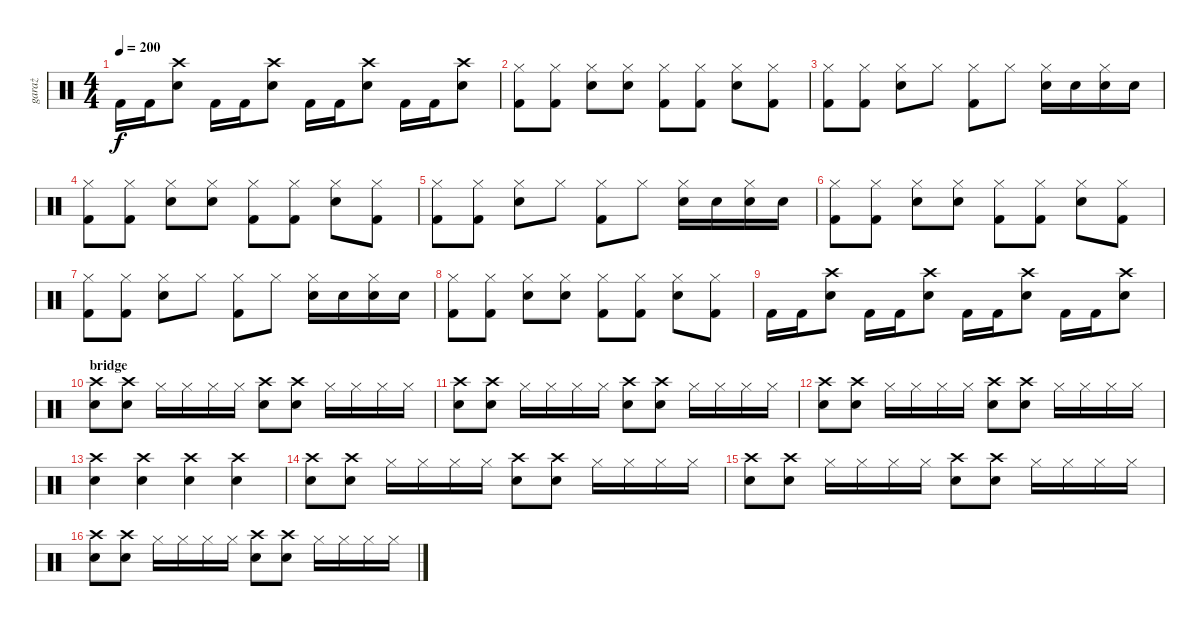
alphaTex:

\track ("garaż" "garaż") {instrument percussion}
\staff {score}
\articulation defaults
\ts (4 4)
\tempo 200
\clef neutral
\ks c "Kick (hit) 2".16{dy f} "Kick (hit) 2".16
("Crash high (hit)" "Snare (hit) 2").8 "Kick (hit) 2".16 "Kick (hit) 2".16 ("Crash high (hit)" "Snare (hit) 2").8 "Kick (hit) 2".16 "Kick (hit) 2".16 ("Crash high (hit)" "Snare (hit) 2").8 "Kick (hit) 2".16 "Kick (hit) 2".16 ("Crash high (hit)" "Snare (hit) 2").8 |
("Hi-Hat (closed)" "Kick (hit) 2").8 ("Hi-Hat (closed)" "Kick (hit) 2").8 ("Hi-Hat (closed)" "Snare (hit) 2").8 ("Hi-Hat (closed)" "Snare (hit) 2").8 ("Hi-Hat (closed)" "Kick (hit) 2").8 ("Hi-Hat (closed)" "Kick (hit) 2").8 ("Hi-Hat (closed)" "Snare (hit) 2").8 ("Hi-Hat (closed)" "Kick (hit) 2").8 |
("Hi-Hat (closed)" "Kick (hit) 2").8 ("Hi-Hat (closed)" "Kick (hit) 2").8 ("Hi-Hat (closed)" "Snare (hit) 2").8 "Hi-Hat (closed)".8 ("Hi-Hat (closed)" "Kick (hit) 2").8 "Hi-Hat (closed)".8 ("Hi-Hat (closed)" "Snare (hit) 2").16 "Snare (hit) 2".16 ("Hi-Hat (closed)" "Snare (hit) 2").16 "Snare (hit) 2".16 |
("Hi-Hat (closed)" "Kick (hit) 2").8 ("Hi-Hat (closed)" "Kick (hit) 2").8 ("Hi-Hat (closed)" "Snare (hit) 2").8 ("Hi-Hat (closed)" "Snare (hit) 2").8 ("Hi-Hat (closed)" "Kick (hit) 2").8 ("Hi-Hat (closed)" "Kick (hit) 2").8 ("Hi-Hat (closed)" "Snare (hit) 2").8 ("Hi-Hat (closed)" "Kick (hit) 2").8 |
("Hi-Hat (closed)" "Kick (hit) 2").8 ("Hi-Hat (closed)" "Kick (hit) 2").8 ("Hi-Hat (closed)" "Snare (hit) 2").8 "Hi-Hat (closed)".8 ("Hi-Hat (closed)" "Kick (hit) 2").8 "Hi-Hat (closed)".8 ("Hi-Hat (closed)" "Snare (hit) 2").16 "Snare (hit) 2".16 ("Hi-Hat (closed)" "Snare (hit) 2").16 "Snare (hit) 2".16 |
("Hi-Hat (closed)" "Kick (hit) 2").8 ("Hi-Hat (closed)" "Kick (hit) 2").8 ("Hi-Hat (closed)" "Snare (hit) 2").8 ("Hi-Hat (closed)" "Snare (hit) 2").8 ("Hi-Hat (closed)" "Kick (hit) 2").8 ("Hi-Hat (closed)" "Kick (hit) 2").8 ("Hi-Hat (closed)" "Snare (hit) 2").8 ("Hi-Hat (closed)" "Kick (hit) 2").8 |
("Hi-Hat (closed)" "Kick (hit) 2").8 ("Hi-Hat (closed)" "Kick (hit) 2").8 ("Hi-Hat (closed)" "Snare (hit) 2").8 "Hi-Hat (closed)".8 ("Hi-Hat (closed)" "Kick (hit) 2").8 "Hi-Hat (closed)".8 ("Hi-Hat (closed)" "Snare (hit) 2").16 "Snare (hit) 2".16 ("Hi-Hat (closed)" "Snare (hit) 2").16 "Snare (hit) 2".16 |
("Hi-Hat (closed)" "Kick (hit) 2").8 ("Hi-Hat (closed)" "Kick (hit) 2").8 ("Hi-Hat (closed)" "Snare (hit) 2").8 ("Hi-Hat (closed)" "Snare (hit) 2").8 ("Hi-Hat (closed)" "Kick (hit) 2").8 ("Hi-Hat (closed)" "Kick (hit) 2").8 ("Hi-Hat (closed)" "Snare (hit) 2").8 ("Hi-Hat (closed)" "Kick (hit) 2").8 |
"Kick (hit) 2".16 "Kick (hit) 2".16 ("Crash high (hit)" "Snare (hit) 2").8 "Kick (hit) 2".16 "Kick (hit) 2".16 ("Crash high (hit)" "Snare (hit) 2").8 "Kick (hit) 2".16 "Kick (hit) 2".16 ("Crash high (hit)" "Snare (hit) 2").8 "Kick (hit) 2".16 "Kick (hit) 2".16 ("Crash high (hit)" "Snare (hit) 2").8 |
\section ("" "bridge")
("Crash high (hit)" "Snare (hit) 2").8 ("Crash high (hit)" "Snare (hit) 2").8 "Hi-Hat (closed)".16 "Hi-Hat (closed)".16 "Hi-Hat (closed)".16 "Hi-Hat (closed)".16 ("Crash high (hit)" "Snare (hit) 2").8 ("Crash high (hit)" "Snare (hit) 2").8 "Hi-Hat (closed)".16 "Hi-Hat (closed)".16 "Hi-Hat (closed)".16 "Hi-Hat (closed)".16 |
("Crash high (hit)" "Snare (hit) 2").8 ("Crash high (hit)" "Snare (hit) 2").8 "Hi-Hat (closed)".16 "Hi-Hat (closed)".16 "Hi-Hat (closed)".16 "Hi-Hat (closed)".16 ("Crash high (hit)" "Snare (hit) 2").8 ("Crash high (hit)" "Snare (hit) 2").8 "Hi-Hat (closed)".16 "Hi-Hat (closed)".16 "Hi-Hat (closed)".16 "Hi-Hat (closed)".16 |
("Crash high (hit)" "Snare (hit) 2").8 ("Crash high (hit)" "Snare (hit) 2").8 "Hi-Hat (closed)".16 "Hi-Hat (closed)".16 "Hi-Hat (closed)".16 "Hi-Hat (closed)".16 ("Crash high (hit)" "Snare (hit) 2").8 ("Crash high (hit)" "Snare (hit) 2").8 "Hi-Hat (closed)".16 "Hi-Hat (closed)".16 "Hi-Hat (closed)".16 "Hi-Hat (closed)".16 |
("Crash high (hit)" "Snare (hit) 2").4 ("Crash high (hit)" "Snare (hit) 2").4 ("Crash high (hit)" "Snare (hit) 2").4 ("Crash high (hit)" "Snare (hit) 2").4 |
("Crash high (hit)" "Snare (hit) 2").8 ("Crash high (hit)" "Snare (hit) 2").8 "Hi-Hat (closed)".16 "Hi-Hat (closed)".16 "Hi-Hat (closed)".16 "Hi-Hat (closed)".16 ("Crash high (hit)" "Snare (hit) 2").8 ("Crash high (hit)" "Snare (hit) 2").8 "Hi-Hat (closed)".16 "Hi-Hat (closed)".16 "Hi-Hat (closed)".16 "Hi-Hat (closed)".16 |
("Crash high (hit)" "Snare (hit) 2").8 ("Crash high (hit)" "Snare (hit) 2").8 "Hi-Hat (closed)".16 "Hi-Hat (closed)".16 "Hi-Hat (closed)".16 "Hi-Hat (closed)".16 ("Crash high (hit)" "Snare (hit) 2").8 ("Crash high (hit)" "Snare (hit) 2").8 "Hi-Hat (closed)".16 "Hi-Hat (closed)".16 "Hi-Hat (closed)".16 "Hi-Hat (closed)".16 |
("Crash high (hit)" "Snare (hit) 2").8 ("Crash high (hit)" "Snare (hit) 2").8 "Hi-Hat (closed)".16 "Hi-Hat (closed)".16 "Hi-Hat (closed)".16 "Hi-Hat (closed)".16 ("Crash high (hit)" "Snare (hit) 2").8 ("Crash high (hit)" "Snare (hit) 2").8 "Hi-Hat (closed)".16 "Hi-Hat (closed)".16 "Hi-Hat (closed)".16 "Hi-Hat (closed)".16
